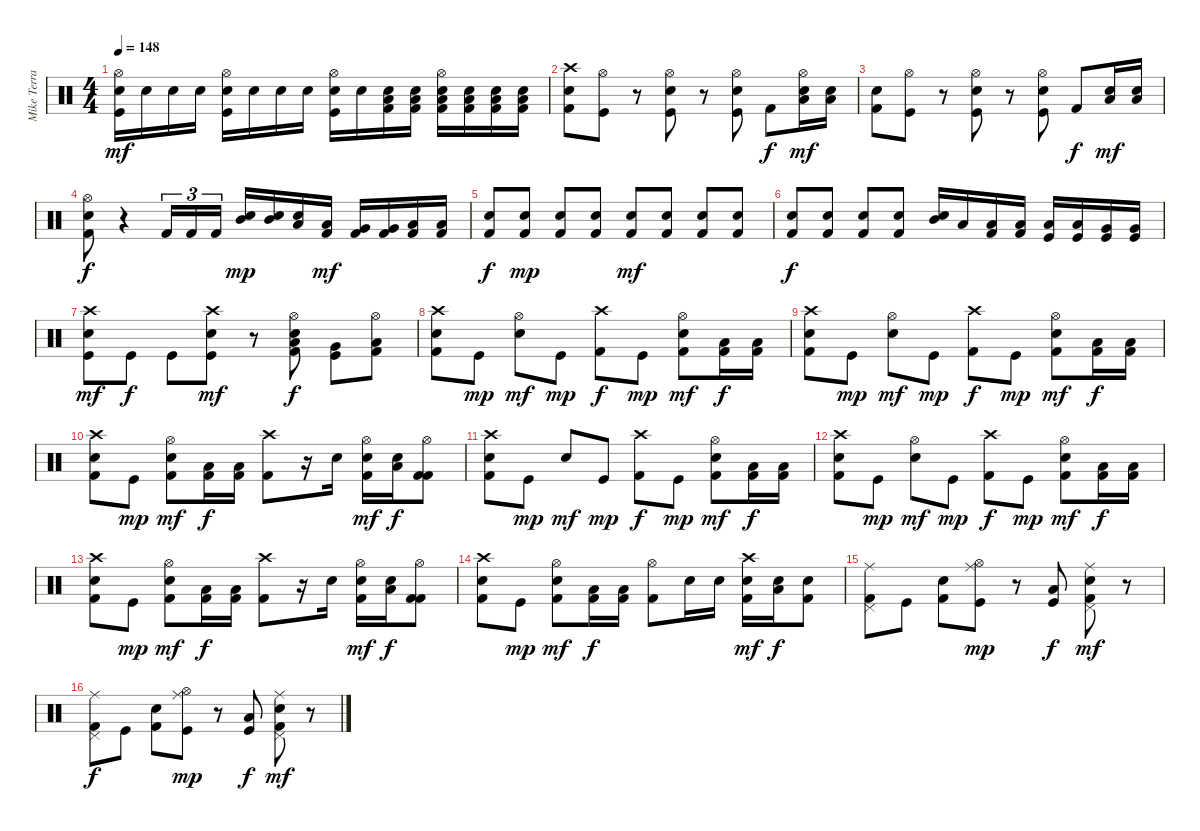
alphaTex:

\track ("Mike Terrana" "Mike Terra") {instrument percussion}
\staff {score}
\articulation defaults
\ts (4 4)
\tempo 148
\clef neutral
\ks c
("Hi-Hat (open)" "Kick (hit)" "Snare (hit) 2").16{dy mf} "Snare (hit) 2".16 "Snare (hit) 2".16 "Snare (hit) 2".16 ("Hi-Hat (open)" "Kick (hit)" "Snare (hit) 2").16 "Snare (hit) 2".16 "Snare (hit) 2".16 "Snare (hit) 2".16 ("Hi-Hat (open)" "Kick (hit)" "Snare (hit) 2").16 "Snare (hit) 2".16 ("Low Floor Tom (hit)" "Kick (hit) 2" "Snare (hit) 2").16 ("Low Floor Tom (hit)" "Kick (hit) 2" "Snare (hit) 2").16 ("Hi-Hat (open)" "Low Floor Tom (hit)" "Kick (hit) 2" "Snare (hit) 2").16 ("Low Floor Tom (hit)" "Kick (hit) 2" "Snare (hit) 2").16 ("Low Floor Tom (hit)" "Kick (hit) 2" "Snare (hit) 2").16 ("Low Floor Tom (hit)" "Kick (hit) 2" "Snare (hit) 2").16 |
("Crash high (hit)" "Kick (hit) 2" "Snare (hit) 2").8 ("Hi-Hat (open)" "Kick (hit)").8 r.8 ("Hi-Hat (open)" "Kick (hit)" "Snare (hit) 2").8 r.8 ("Hi-Hat (open)" "Kick (hit)" "Snare (hit) 2").8 "Kick (hit) 2".8{dy f} ("Hi-Hat (open)" "Low Floor Tom (hit)" "Snare (hit) 2").16{dy mf} ("Low Floor Tom (hit)" "Snare (hit) 2").16 |
("Kick (hit) 2" "Snare (hit) 2").8 ("Hi-Hat (open)" "Kick (hit)").8 r.8 ("Hi-Hat (open)" "Kick (hit)" "Snare (hit) 2").8 r.8 ("Hi-Hat (open)" "Kick (hit)" "Snare (hit) 2").8 "Kick (hit) 2".8{dy f} ("Low Floor Tom (hit)" "Snare (hit) 2").16{dy mf} ("Low Floor Tom (hit)" "Snare (hit) 2").16 |
("Hi-Hat (open)" "Kick (hit) 2" "Snare (hit) 2").8{dy f} r.4 "Kick (hit) 2".16{tu (3 2)} "Kick (hit) 2".16{tu (3 2)} "Kick (hit) 2".16{tu (3 2)} ("Mid Tom (hit)" "Snare (hit) 2").16{dy mp} ("Mid Tom (hit)" "Snare (hit) 2").16 ("Low Tom (hit)" "Snare (hit) 2").16 ("Low Tom (hit)" "Kick (hit) 2").16{dy mf} ("Very Low Tom (hit)" "Kick (hit) 2").16 ("Very Low Tom (hit)" "Kick (hit) 2").16 ("Low Floor Tom (hit)" "Kick (hit) 2").16 ("Low Floor Tom (hit)" "Kick (hit) 2").16 |
("Kick (hit) 2" "Snare (hit) 2").8{dy f} ("Kick (hit) 2" "Snare (hit) 2").8{dy mp} ("Kick (hit) 2" "Snare (hit) 2").8 ("Kick (hit) 2" "Snare (hit) 2").8 ("Kick (hit) 2" "Snare (hit) 2").8{dy mf} ("Kick (hit) 2" "Snare (hit) 2").8 ("Kick (hit) 2" "Snare (hit) 2").8 ("Kick (hit) 2" "Snare (hit) 2").8 |
("Kick (hit) 2" "Snare (hit) 2").8{dy f} ("Kick (hit) 2" "Snare (hit) 2").8 ("Kick (hit) 2" "Snare (hit) 2").8 ("Kick (hit) 2" "Snare (hit) 2").8 ("Mid Tom (hit)" "Snare (hit) 2").16 "Low Tom (hit)".16 ("Low Tom (hit)" "Kick (hit) 2").16 ("Low Tom (hit)" "Kick (hit) 2").16 ("Low Tom (hit)" "Kick (hit)").16 ("Low Tom (hit)" "Kick (hit)").16 ("Very Low Tom (hit)" "Kick (hit)").16 ("Very Low Tom (hit)" "Kick (hit)").16 |
("Crash high (hit)" "Kick (hit)" "Snare (hit) 2").8{dy mf} "Kick (hit)".8{dy f} "Kick (hit)".8 ("Crash high (hit)" "Kick (hit)" "Snare (hit) 2").8{dy mf} r.8 ("Hi-Hat (open)" "Kick (hit) 2" "Snare (hit) 2" "Low Tom (hit)").8{dy f} ("Kick (hit)" "Very Low Tom (hit)").8 ("Hi-Hat (open)" "Kick (hit) 2" "Low Floor Tom (hit)").8 |
("Crash high (hit)" "Kick (hit) 2" "Snare (hit) 2").8 "Kick (hit)".8{dy mp} ("Hi-Hat (open)" "Snare (hit) 2").8{dy mf} "Kick (hit)".8{dy mp} ("Crash high (hit)" "Kick (hit) 2").8{dy f} "Kick (hit)".8{dy mp} ("Hi-Hat (open)" "Kick (hit) 2" "Snare (hit) 2").8{dy mf} ("Low Floor Tom (hit)" "Kick (hit) 2").16{dy f} ("Low Floor Tom (hit)" "Kick (hit) 2").16 |
("Crash high (hit)" "Kick (hit) 2" "Snare (hit) 2").8 "Kick (hit)".8{dy mp} ("Hi-Hat (open)" "Snare (hit) 2").8{dy mf} "Kick (hit)".8{dy mp} ("Crash high (hit)" "Kick (hit) 2").8{dy f} "Kick (hit)".8{dy mp} ("Hi-Hat (open)" "Kick (hit) 2" "Snare (hit) 2").8{dy mf} ("Low Floor Tom (hit)" "Kick (hit) 2").16{dy f} ("Low Floor Tom (hit)" "Kick (hit) 2").16 |
("Crash high (hit)" "Kick (hit) 2" "Snare (hit) 2").8 "Kick (hit)".8{dy mp} ("Hi-Hat (open)" "Kick (hit) 2" "Snare (hit) 2").8{dy mf} ("Low Floor Tom (hit)" "Kick (hit) 2").16{dy f} ("Low Floor Tom (hit)" "Kick (hit) 2").16 ("Crash high (hit)" "Kick (hit) 2").8 r.16 "Snare (hit) 2".16 ("Hi-Hat (open)" "Kick (hit) 2" "Snare (hit) 2").16{dy mf} ("Low Floor Tom (hit)" "Snare (hit) 2").16{dy f} ("Hi-Hat (open)" "Kick (hit) 2" "Kick (hit) 2").8 |
("Crash high (hit)" "Kick (hit) 2" "Snare (hit) 2").8 "Kick (hit)".8{dy mp} "Snare (hit) 2".8{dy mf} "Kick (hit)".8{dy mp} ("Crash high (hit)" "Kick (hit) 2").8{dy f} "Kick (hit)".8{dy mp} ("Hi-Hat (open)" "Kick (hit) 2" "Snare (hit) 2").8{dy mf} ("Low Floor Tom (hit)" "Kick (hit) 2").16{dy f} ("Low Floor Tom (hit)" "Kick (hit) 2").16 |
("Crash high (hit)" "Kick (hit) 2" "Snare (hit) 2").8 "Kick (hit)".8{dy mp} ("Hi-Hat (open)" "Snare (hit) 2").8{dy mf} "Kick (hit)".8{dy mp} ("Crash high (hit)" "Kick (hit) 2").8{dy f} "Kick (hit)".8{dy mp} ("Hi-Hat (open)" "Kick (hit) 2" "Snare (hit) 2").8{dy mf} ("Low Floor Tom (hit)" "Kick (hit) 2").16{dy f} ("Low Floor Tom (hit)" "Kick (hit) 2").16 |
("Crash high (hit)" "Kick (hit) 2" "Snare (hit) 2").8 "Kick (hit)".8{dy mp} ("Hi-Hat (open)" "Kick (hit) 2" "Snare (hit) 2").8{dy mf} ("Low Floor Tom (hit)" "Kick (hit) 2").16{dy f} ("Low Floor Tom (hit)" "Kick (hit) 2").16 ("Crash high (hit)" "Kick (hit) 2").8 r.16 "Snare (hit) 2".16 ("Hi-Hat (open)" "Kick (hit) 2" "Snare (hit) 2").16{dy mf} ("Low Floor Tom (hit)" "Snare (hit) 2").16{dy f} ("Hi-Hat (open)" "Kick (hit) 2" "Kick (hit) 2").8 |
("Crash high (hit)" "Kick (hit) 2" "Snare (hit) 2").8 "Kick (hit)".8{dy mp} ("Hi-Hat (open)" "Kick (hit) 2" "Snare (hit) 2").8{dy mf} ("Low Floor Tom (hit)" "Kick (hit) 2").16{dy f} ("Low Floor Tom (hit)" "Kick (hit) 2").16 ("Hi-Hat (open)" "Kick (hit) 2").8 "Snare (hit) 2".16 "Snare (hit) 2".16 ("Crash high (hit)" "Kick (hit) 2" "Snare (hit) 2").16{dy mf} ("Low Floor Tom (hit)" "Snare (hit) 2").16{dy f} ("Kick (hit) 2" "Snare (hit) 2").8 |
("Pedal Hi-Hat (hit)" "Ride (middle)" "Kick (hit) 2").8 "Kick (hit)".8 ("Kick (hit) 2" "Snare (hit) 2").8 ("Hi-Hat (open)" "Ride (middle)" "Kick (hit)").8{dy mp} r.8 ("Kick (hit)" "Low Floor Tom (hit)").8{dy f} ("Pedal Hi-Hat (hit)" "Ride (middle)" "Kick (hit) 2" "Snare (hit) 2").8{dy mf} r.8 |
("Pedal Hi-Hat (hit)" "Ride (middle)" "Kick (hit) 2").8{dy f} "Kick (hit)".8 ("Kick (hit) 2" "Snare (hit) 2").8 ("Hi-Hat (open)" "Ride (middle)" "Kick (hit)").8{dy mp} r.8 ("Kick (hit)" "Low Floor Tom (hit)").8{dy f} ("Pedal Hi-Hat (hit)" "Ride (middle)" "Kick (hit) 2" "Snare (hit) 2").8{dy mf} r.8
